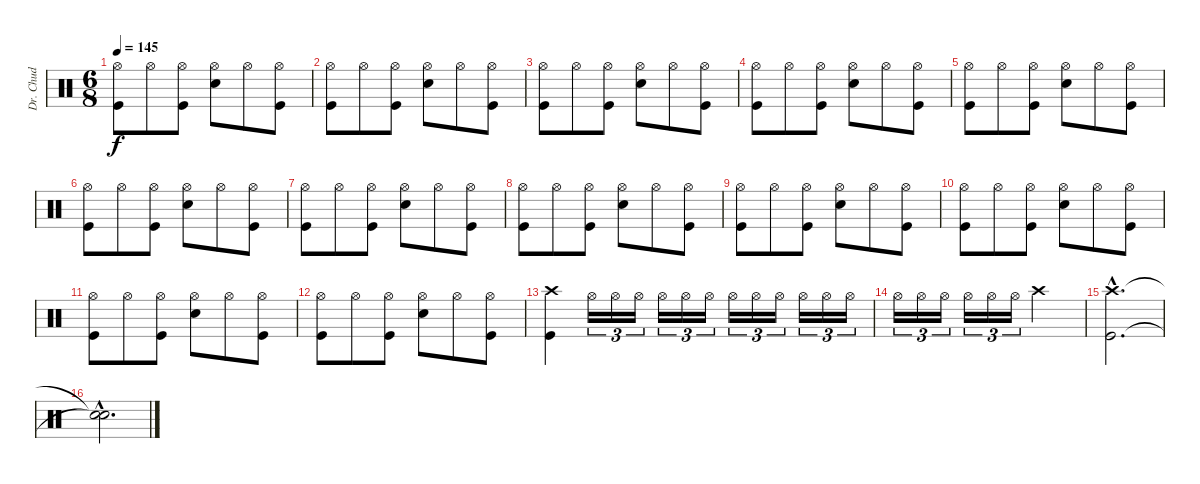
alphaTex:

\track ("Dr. Chud" "Dr. Chud") {instrument percussion}
\staff {score}
\articulation defaults
\ts (6 8)
\tempo 145
\clef neutral
\ks c
("Hi-Hat (open)" "Kick (hit)").8{dy f} "Hi-Hat (open)".8 ("Hi-Hat (open)" "Kick (hit)").8 ("Hi-Hat (open)" "Snare (hit) 2").8 "Hi-Hat (open)".8 ("Hi-Hat (open)" "Kick (hit)").8 |
("Hi-Hat (open)" "Kick (hit)").8 "Hi-Hat (open)".8 ("Hi-Hat (open)" "Kick (hit)").8 ("Hi-Hat (open)" "Snare (hit) 2").8 "Hi-Hat (open)".8 ("Hi-Hat (open)" "Kick (hit)").8 |
("Hi-Hat (open)" "Kick (hit)").8 "Hi-Hat (open)".8 ("Hi-Hat (open)" "Kick (hit)").8 ("Hi-Hat (open)" "Snare (hit) 2").8 "Hi-Hat (open)".8 ("Hi-Hat (open)" "Kick (hit)").8 |
("Hi-Hat (open)" "Kick (hit)").8 "Hi-Hat (open)".8 ("Hi-Hat (open)" "Kick (hit)").8 ("Hi-Hat (open)" "Snare (hit) 2").8 "Hi-Hat (open)".8 ("Hi-Hat (open)" "Kick (hit)").8 |
("Hi-Hat (open)" "Kick (hit)").8 "Hi-Hat (open)".8 ("Hi-Hat (open)" "Kick (hit)").8 ("Hi-Hat (open)" "Snare (hit) 2").8 "Hi-Hat (open)".8 ("Hi-Hat (open)" "Kick (hit)").8 |
("Hi-Hat (open)" "Kick (hit)").8 "Hi-Hat (open)".8 ("Hi-Hat (open)" "Kick (hit)").8 ("Hi-Hat (open)" "Snare (hit) 2").8 "Hi-Hat (open)".8 ("Hi-Hat (open)" "Kick (hit)").8 |
("Hi-Hat (open)" "Kick (hit)").8 "Hi-Hat (open)".8 ("Hi-Hat (open)" "Kick (hit)").8 ("Hi-Hat (open)" "Snare (hit) 2").8 "Hi-Hat (open)".8 ("Hi-Hat (open)" "Kick (hit)").8 |
("Hi-Hat (open)" "Kick (hit)").8 "Hi-Hat (open)".8 ("Hi-Hat (open)" "Kick (hit)").8 ("Hi-Hat (open)" "Snare (hit) 2").8 "Hi-Hat (open)".8 ("Hi-Hat (open)" "Kick (hit)").8 |
("Hi-Hat (open)" "Kick (hit)").8 "Hi-Hat (open)".8 ("Hi-Hat (open)" "Kick (hit)").8 ("Hi-Hat (open)" "Snare (hit) 2").8 "Hi-Hat (open)".8 ("Hi-Hat (open)" "Kick (hit)").8 |
("Hi-Hat (open)" "Kick (hit)").8 "Hi-Hat (open)".8 ("Hi-Hat (open)" "Kick (hit)").8 ("Hi-Hat (open)" "Snare (hit) 2").8 "Hi-Hat (open)".8 ("Hi-Hat (open)" "Kick (hit)").8 |
("Hi-Hat (open)" "Kick (hit)").8 "Hi-Hat (open)".8 ("Hi-Hat (open)" "Kick (hit)").8 ("Hi-Hat (open)" "Snare (hit) 2").8 "Hi-Hat (open)".8 ("Hi-Hat (open)" "Kick (hit)").8 |
("Hi-Hat (open)" "Kick (hit)").8 "Hi-Hat (open)".8 ("Hi-Hat (open)" "Kick (hit)").8 ("Hi-Hat (open)" "Snare (hit) 2").8 "Hi-Hat (open)".8 ("Hi-Hat (open)" "Kick (hit)").8 |
("Crash high (hit)" "Kick (hit)").4 "Hi-Hat (open)".16{tu (3 2)} "Hi-Hat (open)".16{tu (3 2)} "Hi-Hat (open)".16{tu (3 2)} "Hi-Hat (open)".16{tu (3 2)} "Hi-Hat (open)".16{tu (3 2)} "Hi-Hat (open)".16{tu (3 2)} "Hi-Hat (open)".16{tu (3 2)} "Hi-Hat (open)".16{tu (3 2)} "Hi-Hat (open)".16{tu (3 2)} "Hi-Hat (open)".16{tu (3 2)} "Hi-Hat (open)".16{tu (3 2)} "Hi-Hat (open)".16{tu (3 2)} |
"Hi-Hat (open)".16{tu (3 2)} "Hi-Hat (open)".16{tu (3 2)} "Hi-Hat (open)".16{tu (3 2)} "Hi-Hat (open)".16{tu (3 2)} "Hi-Hat (open)".16{tu (3 2)} "Hi-Hat (open)".16{tu (3 2)} "Crash high (hit)".2 |
("Crash high (hit)"{hac} "Kick (hit)"{hac}).2{d} |
("Snare (hit)"{hac t} "Snare (hit)"{hac t}).2{d}
